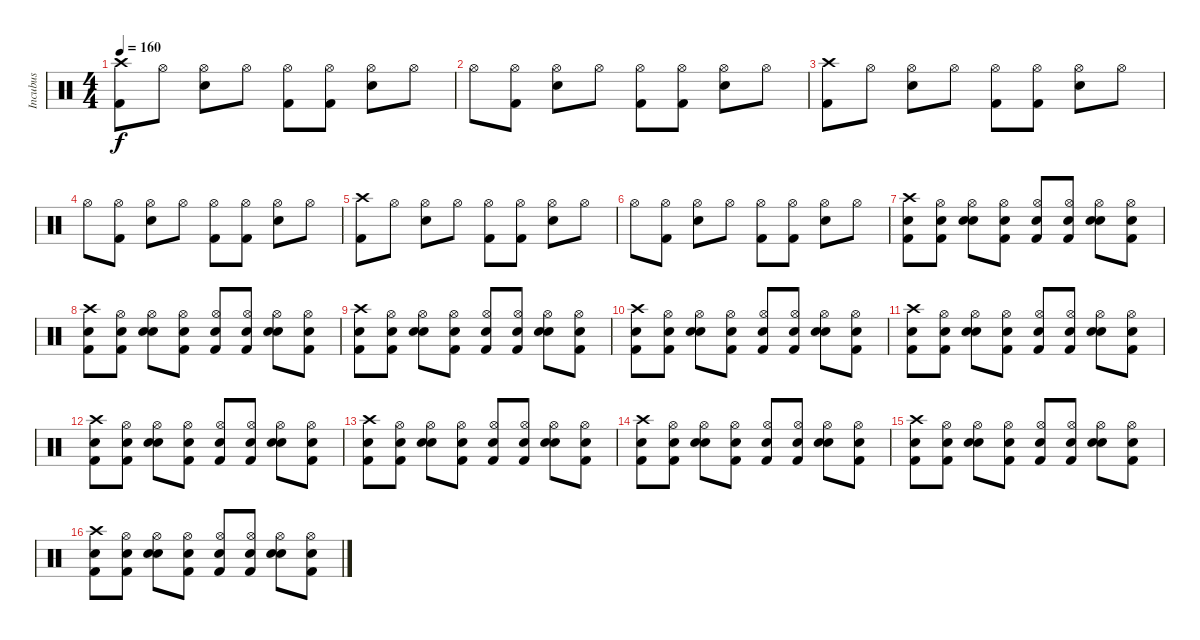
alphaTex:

\track ("Incubus" "Incubus") {instrument percussion}
\staff {score}
\articulation defaults
\ts (4 4)
\tempo 160
\clef neutral
\ks c
("Crash high (hit)" "Kick (hit) 2").8{dy f} "Hi-Hat (open)".8 ("Hi-Hat (open)" "Snare (hit) 2").8 "Hi-Hat (open)".8 ("Hi-Hat (open)" "Kick (hit) 2").8 ("Hi-Hat (open)" "Kick (hit) 2").8 ("Hi-Hat (open)" "Snare (hit) 2").8 "Hi-Hat (open)".8 |
"Hi-Hat (open)".8 ("Hi-Hat (open)" "Kick (hit) 2").8 ("Hi-Hat (open)" "Snare (hit) 2").8 "Hi-Hat (open)".8 ("Hi-Hat (open)" "Kick (hit) 2").8 ("Hi-Hat (open)" "Kick (hit) 2").8 ("Hi-Hat (open)" "Snare (hit) 2").8 "Hi-Hat (open)".8 |
("Crash high (hit)" "Kick (hit) 2").8 "Hi-Hat (open)".8 ("Hi-Hat (open)" "Snare (hit) 2").8 "Hi-Hat (open)".8 ("Hi-Hat (open)" "Kick (hit) 2").8 ("Hi-Hat (open)" "Kick (hit) 2").8 ("Hi-Hat (open)" "Snare (hit) 2").8 "Hi-Hat (open)".8 |
"Hi-Hat (open)".8 ("Hi-Hat (open)" "Kick (hit) 2").8 ("Hi-Hat (open)" "Snare (hit) 2").8 "Hi-Hat (open)".8 ("Hi-Hat (open)" "Kick (hit) 2").8 ("Hi-Hat (open)" "Kick (hit) 2").8 ("Hi-Hat (open)" "Snare (hit) 2").8 "Hi-Hat (open)".8 |
("Crash high (hit)" "Kick (hit) 2").8 "Hi-Hat (open)".8 ("Hi-Hat (open)" "Snare (hit) 2").8 "Hi-Hat (open)".8 ("Hi-Hat (open)" "Kick (hit) 2").8 ("Hi-Hat (open)" "Kick (hit) 2").8 ("Hi-Hat (open)" "Snare (hit) 2").8 "Hi-Hat (open)".8 |
"Hi-Hat (open)".8 ("Hi-Hat (open)" "Kick (hit) 2").8 ("Hi-Hat (open)" "Snare (hit) 2").8 "Hi-Hat (open)".8 ("Hi-Hat (open)" "Kick (hit) 2").8 ("Hi-Hat (open)" "Kick (hit) 2").8 ("Hi-Hat (open)" "Snare (hit) 2").8 "Hi-Hat (open)".8 |
("Crash high (hit)" "Snare (hit) 2" "Kick (hit) 2").8 ("Hi-Hat (open)" "Snare (hit) 2" "Kick (hit) 2").8 ("Hi-Hat (open)" "Snare (hit) 2" "Snare (hit) 2").8 ("Hi-Hat (open)" "Snare (hit)" "Kick (hit) 2").8 ("Hi-Hat (open)" "Snare (hit) 2" "Kick (hit) 2").8 ("Hi-Hat (open)" "Snare (hit) 2" "Kick (hit) 2").8 ("Hi-Hat (open)" "Snare (hit) 2" "Snare (hit) 2").8 ("Hi-Hat (open)" "Snare (hit) 2" "Kick (hit) 2").8 |
("Crash high (hit)" "Snare (hit) 2" "Kick (hit) 2").8 ("Hi-Hat (open)" "Snare (hit) 2" "Kick (hit) 2").8 ("Hi-Hat (open)" "Snare (hit) 2" "Snare (hit) 2").8 ("Hi-Hat (open)" "Snare (hit)" "Kick (hit) 2").8 ("Hi-Hat (open)" "Snare (hit) 2" "Kick (hit) 2").8 ("Hi-Hat (open)" "Snare (hit) 2" "Kick (hit) 2").8 ("Hi-Hat (open)" "Snare (hit) 2" "Snare (hit) 2").8 ("Hi-Hat (open)" "Snare (hit) 2" "Kick (hit) 2").8 |
("Crash high (hit)" "Snare (hit) 2" "Kick (hit) 2").8 ("Hi-Hat (open)" "Snare (hit) 2" "Kick (hit) 2").8 ("Hi-Hat (open)" "Snare (hit) 2" "Snare (hit) 2").8 ("Hi-Hat (open)" "Snare (hit)" "Kick (hit) 2").8 ("Hi-Hat (open)" "Snare (hit) 2" "Kick (hit) 2").8 ("Hi-Hat (open)" "Snare (hit) 2" "Kick (hit) 2").8 ("Hi-Hat (open)" "Snare (hit) 2" "Snare (hit) 2").8 ("Hi-Hat (open)" "Snare (hit) 2" "Kick (hit) 2").8 |
("Crash high (hit)" "Snare (hit) 2" "Kick (hit) 2").8 ("Hi-Hat (open)" "Snare (hit) 2" "Kick (hit) 2").8 ("Hi-Hat (open)" "Snare (hit) 2" "Snare (hit) 2").8 ("Hi-Hat (open)" "Snare (hit)" "Kick (hit) 2").8 ("Hi-Hat (open)" "Snare (hit) 2" "Kick (hit) 2").8 ("Hi-Hat (open)" "Snare (hit) 2" "Kick (hit) 2").8 ("Hi-Hat (open)" "Snare (hit) 2" "Snare (hit) 2").8 ("Hi-Hat (open)" "Snare (hit) 2" "Kick (hit) 2").8 |
("Crash high (hit)" "Snare (hit) 2" "Kick (hit) 2").8 ("Hi-Hat (open)" "Snare (hit) 2" "Kick (hit) 2").8 ("Hi-Hat (open)" "Snare (hit) 2" "Snare (hit) 2").8 ("Hi-Hat (open)" "Snare (hit)" "Kick (hit) 2").8 ("Hi-Hat (open)" "Snare (hit) 2" "Kick (hit) 2").8 ("Hi-Hat (open)" "Snare (hit) 2" "Kick (hit) 2").8 ("Hi-Hat (open)" "Snare (hit) 2" "Snare (hit) 2").8 ("Hi-Hat (open)" "Snare (hit) 2" "Kick (hit) 2").8 |
("Crash high (hit)" "Snare (hit) 2" "Kick (hit) 2").8 ("Hi-Hat (open)" "Snare (hit) 2" "Kick (hit) 2").8 ("Hi-Hat (open)" "Snare (hit) 2" "Snare (hit) 2").8 ("Hi-Hat (open)" "Snare (hit)" "Kick (hit) 2").8 ("Hi-Hat (open)" "Snare (hit) 2" "Kick (hit) 2").8 ("Hi-Hat (open)" "Snare (hit) 2" "Kick (hit) 2").8 ("Hi-Hat (open)" "Snare (hit) 2" "Snare (hit) 2").8 ("Hi-Hat (open)" "Snare (hit) 2" "Kick (hit) 2").8 |
("Crash high (hit)" "Snare (hit) 2" "Kick (hit) 2").8 ("Hi-Hat (open)" "Snare (hit) 2" "Kick (hit) 2").8 ("Hi-Hat (open)" "Snare (hit) 2" "Snare (hit) 2").8 ("Hi-Hat (open)" "Snare (hit)" "Kick (hit) 2").8 ("Hi-Hat (open)" "Snare (hit) 2" "Kick (hit) 2").8 ("Hi-Hat (open)" "Snare (hit) 2" "Kick (hit) 2").8 ("Hi-Hat (open)" "Snare (hit) 2" "Snare (hit) 2").8 ("Hi-Hat (open)" "Snare (hit) 2" "Kick (hit) 2").8 |
("Crash high (hit)" "Snare (hit) 2" "Kick (hit) 2").8 ("Hi-Hat (open)" "Snare (hit) 2" "Kick (hit) 2").8 ("Hi-Hat (open)" "Snare (hit) 2" "Snare (hit) 2").8 ("Hi-Hat (open)" "Snare (hit)" "Kick (hit) 2").8 ("Hi-Hat (open)" "Snare (hit) 2" "Kick (hit) 2").8 ("Hi-Hat (open)" "Snare (hit) 2" "Kick (hit) 2").8 ("Hi-Hat (open)" "Snare (hit) 2" "Snare (hit) 2").8 ("Hi-Hat (open)" "Snare (hit) 2" "Kick (hit) 2").8 |
("Crash high (hit)" "Snare (hit) 2" "Kick (hit) 2").8 ("Hi-Hat (open)" "Snare (hit) 2" "Kick (hit) 2").8 ("Hi-Hat (open)" "Snare (hit) 2" "Snare (hit) 2").8 ("Hi-Hat (open)" "Snare (hit)" "Kick (hit) 2").8 ("Hi-Hat (open)" "Snare (hit) 2" "Kick (hit) 2").8 ("Hi-Hat (open)" "Snare (hit) 2" "Kick (hit) 2").8 ("Hi-Hat (open)" "Snare (hit) 2" "Snare (hit) 2").8 ("Hi-Hat (open)" "Snare (hit) 2" "Kick (hit) 2").8 |
("Crash high (hit)" "Snare (hit) 2" "Kick (hit) 2").8 ("Hi-Hat (open)" "Snare (hit) 2" "Kick (hit) 2").8 ("Hi-Hat (open)" "Snare (hit) 2" "Snare (hit) 2").8 ("Hi-Hat (open)" "Snare (hit)" "Kick (hit) 2").8 ("Hi-Hat (open)" "Snare (hit) 2" "Kick (hit) 2").8 ("Hi-Hat (open)" "Snare (hit) 2" "Kick (hit) 2").8 ("Hi-Hat (open)" "Snare (hit) 2" "Snare (hit) 2").8 ("Hi-Hat (open)" "Snare (hit) 2" "Kick (hit) 2").8
